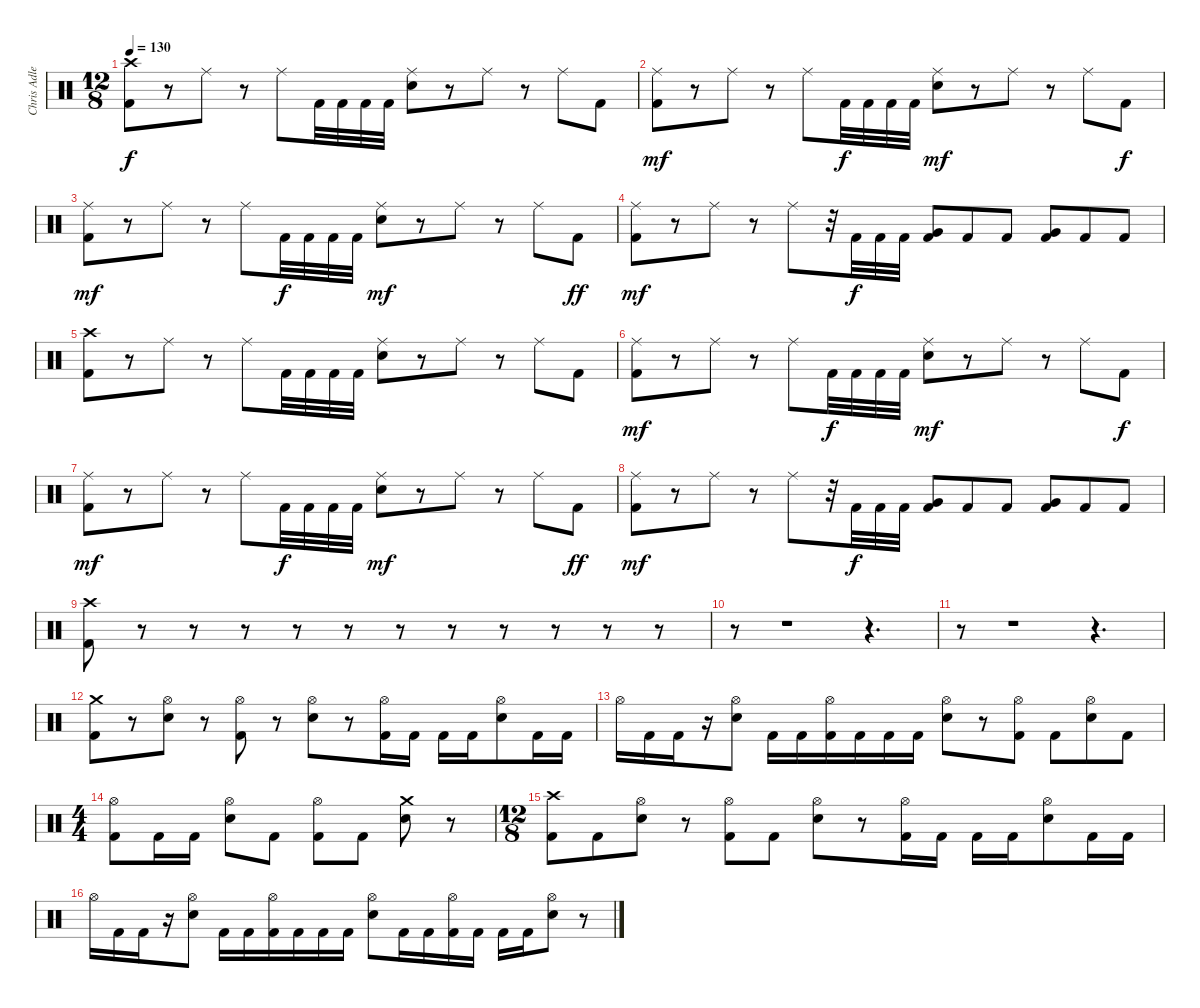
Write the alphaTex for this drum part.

\track ("Chris Adler - Drums" "Chris Adle") {instrument percussion}
\staff {score}
\articulation defaults
\ts (12 8)
\tempo 130
\clef neutral
\ks c
("Crash high (hit)" "Kick (hit) 2").8{dy f} r.8 "Ride (middle)".8 r.8 "Ride (middle)".8 "Kick (hit) 2".32 "Kick (hit) 2".32 "Kick (hit) 2".32 "Kick (hit) 2".32 ("Ride (middle)" "Snare (hit) 2").8 r.8 "Ride (middle)".8 r.8 "Ride (middle)".8 "Kick (hit) 2".8 |
("Ride (middle)" "Kick (hit) 2").8{dy mf} r.8 "Ride (middle)".8 r.8 "Ride (middle)".8 "Kick (hit) 2".32{dy f} "Kick (hit) 2".32 "Kick (hit) 2".32 "Kick (hit) 2".32 ("Ride (middle)" "Snare (hit) 2").8{dy mf} r.8 "Ride (middle)".8 r.8 "Ride (middle)".8 "Kick (hit) 2".8{dy f} |
("Ride (middle)" "Kick (hit) 2").8{dy mf} r.8 "Ride (middle)".8 r.8 "Ride (middle)".8 "Kick (hit) 2".32{dy f} "Kick (hit) 2".32 "Kick (hit) 2".32 "Kick (hit) 2".32 ("Ride (middle)" "Snare (hit) 2").8{dy mf} r.8 "Ride (middle)".8 r.8 "Ride (middle)".8 "Kick (hit) 2".8{dy ff} |
("Ride (middle)" "Kick (hit) 2").8{dy mf} r.8 "Ride (middle)".8 r.8 "Ride (middle)".8 r.32 "Kick (hit) 2".32{dy f} "Kick (hit) 2".32 "Kick (hit) 2".32 ("Very Low Tom (hit)" "Kick (hit) 2").8 "Kick (hit) 2".8 "Kick (hit) 2".8 ("Very Low Tom (hit)" "Kick (hit) 2").8 "Kick (hit) 2".8 "Kick (hit) 2".8 |
("Crash high (hit)" "Kick (hit) 2").8 r.8 "Ride (middle)".8 r.8 "Ride (middle)".8 "Kick (hit) 2".32 "Kick (hit) 2".32 "Kick (hit) 2".32 "Kick (hit) 2".32 ("Ride (middle)" "Snare (hit) 2").8 r.8 "Ride (middle)".8 r.8 "Ride (middle)".8 "Kick (hit) 2".8 |
("Ride (middle)" "Kick (hit) 2").8{dy mf} r.8 "Ride (middle)".8 r.8 "Ride (middle)".8 "Kick (hit) 2".32{dy f} "Kick (hit) 2".32 "Kick (hit) 2".32 "Kick (hit) 2".32 ("Ride (middle)" "Snare (hit) 2").8{dy mf} r.8 "Ride (middle)".8 r.8 "Ride (middle)".8 "Kick (hit) 2".8{dy f} |
("Ride (middle)" "Kick (hit) 2").8{dy mf} r.8 "Ride (middle)".8 r.8 "Ride (middle)".8 "Kick (hit) 2".32{dy f} "Kick (hit) 2".32 "Kick (hit) 2".32 "Kick (hit) 2".32 ("Ride (middle)" "Snare (hit) 2").8{dy mf} r.8 "Ride (middle)".8 r.8 "Ride (middle)".8 "Kick (hit) 2".8{dy ff} |
("Ride (middle)" "Kick (hit) 2").8{dy mf} r.8 "Ride (middle)".8 r.8 "Ride (middle)".8 r.32 "Kick (hit) 2".32{dy f} "Kick (hit) 2".32 "Kick (hit) 2".32 ("Very Low Tom (hit)" "Kick (hit) 2").8 "Kick (hit) 2".8 "Kick (hit) 2".8 ("Very Low Tom (hit)" "Kick (hit) 2").8 "Kick (hit) 2".8 "Kick (hit) 2".8 |
("Crash high (hit)" "Kick (hit) 2").8 r.8 r.8 r.8 r.8 r.8 r.8 r.8 r.8 r.8 r.8 r.8 |
r.8 r.1 r.4{d} |
r.8 r.1 r.4{d} |
("Crash medium (hit)" "Kick (hit) 2").8 r.8 ("Hi-Hat (open)" "Snare (hit) 2").8 r.8 ("Hi-Hat (open)" "Kick (hit) 2").8 r.8 ("Hi-Hat (open)" "Snare (hit) 2").8 r.8 ("Hi-Hat (open)" "Kick (hit) 2").16 "Kick (hit) 2".16 "Kick (hit) 2".16 "Kick (hit) 2".16 ("Hi-Hat (open)" "Snare (hit) 2").8 "Kick (hit) 2".16 "Kick (hit) 2".16 |
"Hi-Hat (open)".16 "Kick (hit) 2".16 "Kick (hit) 2".16 r.16 ("Hi-Hat (open)" "Snare (hit) 2").8 "Kick (hit) 2".16 "Kick (hit) 2".16 ("Hi-Hat (open)" "Kick (hit) 2").16 "Kick (hit) 2".16 "Kick (hit) 2".16 "Kick (hit) 2".16 ("Hi-Hat (open)" "Snare (hit) 2").8 r.8 ("Hi-Hat (open)" "Kick (hit) 2").8 "Kick (hit) 2".8 ("Hi-Hat (open)" "Snare (hit) 2").8 "Kick (hit) 2".8 |
\ts (4 4)
("Hi-Hat (open)" "Kick (hit) 2").8 "Kick (hit) 2".16 "Kick (hit) 2".16 ("Hi-Hat (open)" "Snare (hit) 2").8 "Kick (hit) 2".8 ("Hi-Hat (open)" "Kick (hit) 2").8 "Kick (hit) 2".8 ("Crash medium (hit)" "Snare (hit) 2").8 r.8 |
\ts (12 8)
("Crash high (hit)" "Kick (hit) 2").8 "Kick (hit) 2".8 ("Hi-Hat (open)" "Snare (hit) 2").8 r.8 ("Hi-Hat (open)" "Kick (hit) 2").8 "Kick (hit) 2".8 ("Hi-Hat (open)" "Snare (hit) 2").8 r.8 ("Hi-Hat (open)" "Kick (hit) 2").16 "Kick (hit) 2".16 "Kick (hit) 2".16 "Kick (hit) 2".16 ("Hi-Hat (open)" "Snare (hit) 2").8 "Kick (hit) 2".16 "Kick (hit) 2".16 |
"Hi-Hat (open)".16 "Kick (hit) 2".16 "Kick (hit) 2".16 r.16 ("Hi-Hat (open)" "Snare (hit) 2").8 "Kick (hit) 2".16 "Kick (hit) 2".16 ("Hi-Hat (open)" "Kick (hit) 2").16 "Kick (hit) 2".16 "Kick (hit) 2".16 "Kick (hit) 2".16 ("Hi-Hat (open)" "Snare (hit) 2").8 "Kick (hit) 2".16 "Kick (hit) 2".16 ("Hi-Hat (open)" "Kick (hit) 2").16 "Kick (hit) 2".16 "Kick (hit) 2".16 "Kick (hit) 2".16 ("Hi-Hat (open)" "Snare (hit) 2").8 r.8
